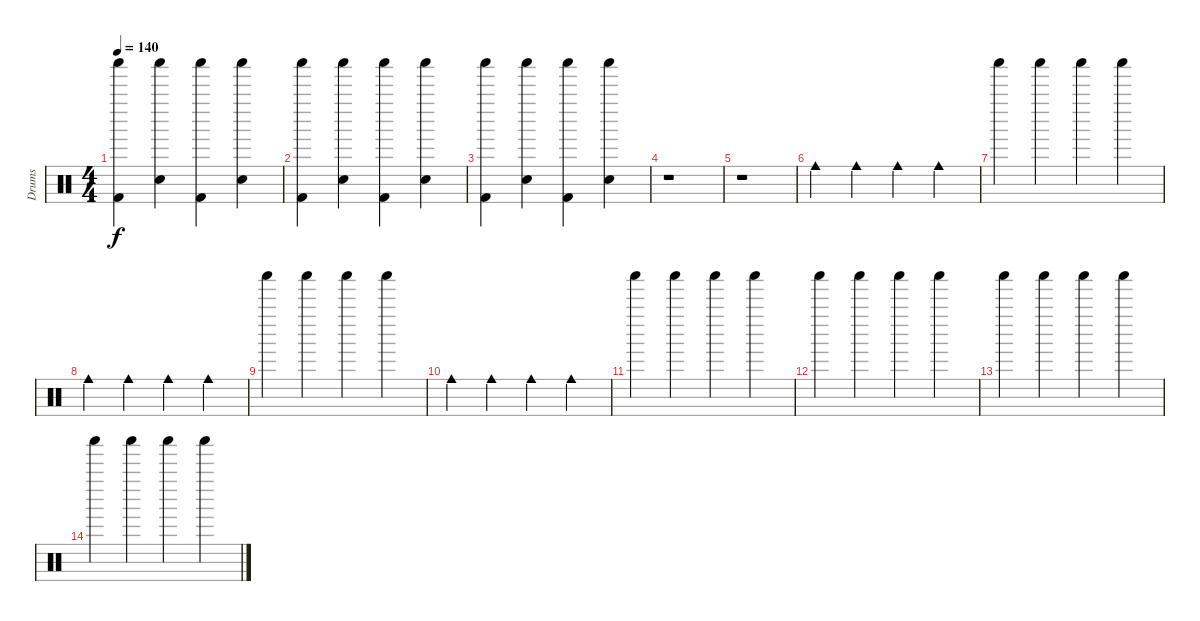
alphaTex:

\track ("Drums" "Drums") {instrument percussion}
\staff {score}
\articulation defaults
\ts (4 4)
\tempo 140
\clef neutral
\ks c
("Shaker (hit)" "Kick (hit) 2").4{dy f} ("Shaker (hit)" "Snare (hit) 2").4 ("Shaker (hit)" "Kick (hit) 2").4 ("Shaker (hit)" "Snare (hit) 2").4 |
("Shaker (hit)" "Kick (hit) 2").4 ("Shaker (hit)" "Snare (hit) 2").4 ("Shaker (hit)" "Kick (hit) 2").4 ("Shaker (hit)" "Snare (hit) 2").4 |
("Shaker (hit)" "Kick (hit) 2").4 ("Shaker (hit)" "Snare (hit) 2").4 ("Shaker (hit)" "Kick (hit) 2").4 ("Shaker (hit)" "Snare (hit) 2").4 |
r.1 |
r.1 |
"Cowbell medium (hit)".4 "Cowbell medium (hit)".4 "Cowbell medium (hit)".4 "Cowbell medium (hit)".4 |
"Shaker (hit)".4 "Shaker (hit)".4 "Shaker (hit)".4 "Shaker (hit)".4 |
"Cowbell medium (hit)".4 "Cowbell medium (hit)".4 "Cowbell medium (hit)".4 "Cowbell medium (hit)".4 |
"Shaker (hit)".4 "Shaker (hit)".4 "Shaker (hit)".4 "Shaker (hit)".4 |
"Cowbell medium (hit)".4 "Cowbell medium (hit)".4 "Cowbell medium (hit)".4 "Cowbell medium (hit)".4 |
"Shaker (hit)".4 "Shaker (hit)".4 "Shaker (hit)".4 "Shaker (hit)".4 |
"Shaker (hit)".4 "Shaker (hit)".4 "Shaker (hit)".4 "Shaker (hit)".4 |
"Shaker (hit)".4 "Shaker (hit)".4 "Shaker (hit)".4 "Shaker (hit)".4 |
"Shaker (hit)".4 "Shaker (hit)".4 "Shaker (hit)".4 "Shaker (hit)".4
